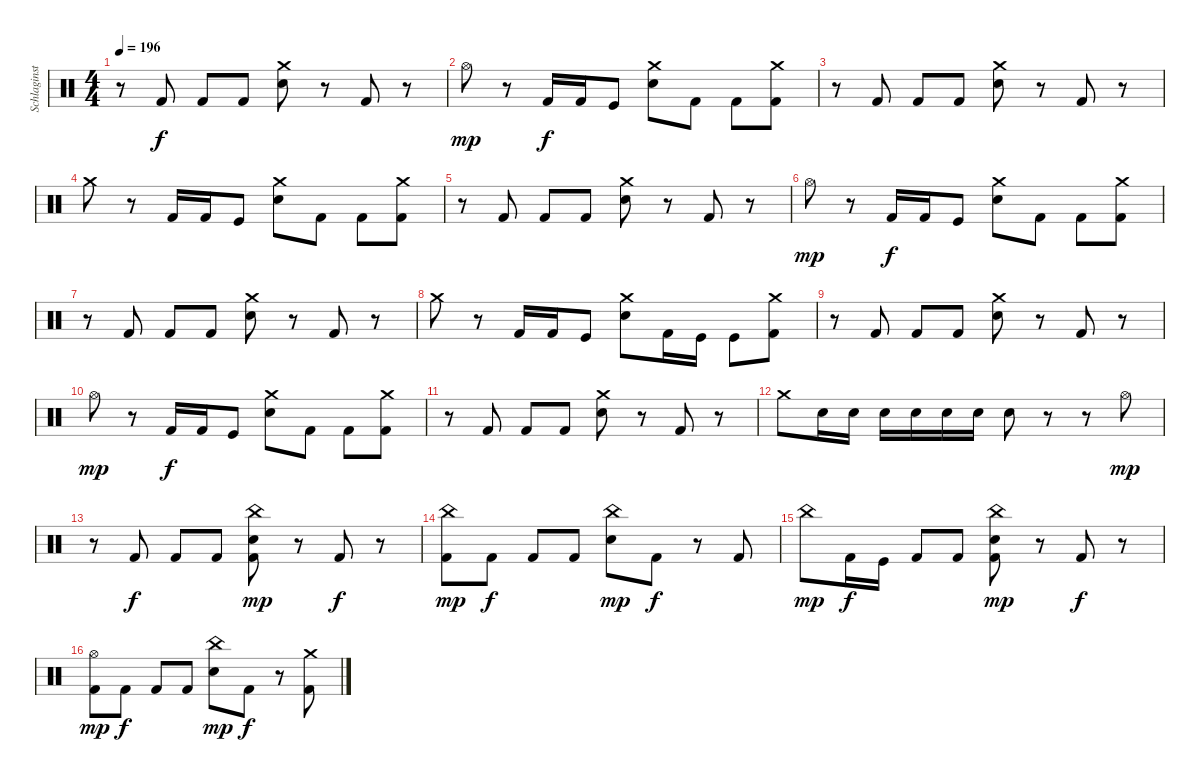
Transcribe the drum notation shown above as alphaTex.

\track ("Schlaginstrumente - Auswahl" "Schlaginst") {instrument percussion}
\staff
\articulation defaults
\ts (4 4)
\tempo 196
\clef neutral
\ks c
r.8{dy f} "Kick (hit) 2".8 "Kick (hit) 2".8 "Kick (hit) 2".8 ("Crash medium (hit)" "Snare (hit) 2").8 r.8 "Kick (hit) 2".8 r.8 |
"Hi-Hat (open)".8{dy mp} r.8 "Kick (hit) 2".16{dy f} "Kick (hit) 2".16 "Kick (hit)".8 ("Crash medium (hit)" "Electric Snare (hit)").8 "Kick (hit) 2".8 "Kick (hit) 2".8 ("Crash medium (hit)" "Kick (hit) 2").8 |
r.8 "Kick (hit) 2".8 "Kick (hit) 2".8 "Kick (hit) 2".8 ("Crash medium (hit)" "Snare (hit) 2").8 r.8 "Kick (hit) 2".8 r.8 |
"Crash medium (hit)".8 r.8 "Kick (hit) 2".16 "Kick (hit) 2".16 "Kick (hit)".8 ("Crash medium (hit)" "Electric Snare (hit)").8 "Kick (hit) 2".8 "Kick (hit) 2".8 ("Crash medium (hit)" "Kick (hit) 2").8 |
r.8 "Kick (hit) 2".8 "Kick (hit) 2".8 "Kick (hit) 2".8 ("Crash medium (hit)" "Snare (hit) 2").8 r.8 "Kick (hit) 2".8 r.8 |
"Hi-Hat (open)".8{dy mp} r.8 "Kick (hit) 2".16{dy f} "Kick (hit) 2".16 "Kick (hit)".8 ("Crash medium (hit)" "Electric Snare (hit)").8 "Kick (hit) 2".8 "Kick (hit) 2".8 ("Crash medium (hit)" "Kick (hit) 2").8 |
r.8 "Kick (hit) 2".8 "Kick (hit) 2".8 "Kick (hit) 2".8 ("Crash medium (hit)" "Snare (hit) 2").8 r.8 "Kick (hit) 2".8 r.8 |
"Crash medium (hit)".8 r.8 "Kick (hit) 2".16 "Kick (hit) 2".16 "Kick (hit)".8 ("Crash medium (hit)" "Electric Snare (hit)").8 "Kick (hit) 2".16 "Kick (hit)".16 "Kick (hit)".8 ("Crash medium (hit)" "Kick (hit) 2").8 |
r.8 "Kick (hit) 2".8 "Kick (hit) 2".8 "Kick (hit) 2".8 ("Crash medium (hit)" "Snare (hit) 2").8 r.8 "Kick (hit) 2".8 r.8 |
"Hi-Hat (open)".8{dy mp} r.8 "Kick (hit) 2".16{dy f} "Kick (hit) 2".16 "Kick (hit)".8 ("Crash medium (hit)" "Electric Snare (hit)").8 "Kick (hit) 2".8 "Kick (hit) 2".8 ("Crash medium (hit)" "Kick (hit) 2").8 |
r.8 "Kick (hit) 2".8 "Kick (hit) 2".8 "Kick (hit) 2".8 ("Crash medium (hit)" "Snare (hit) 2").8 r.8 "Kick (hit) 2".8 r.8 |
"Crash medium (hit)".8 "Electric Snare (hit)".16 "Electric Snare (hit)".16 "Electric Snare (hit)".16 "Electric Snare (hit)".16 "Electric Snare (hit)".16 "Electric Snare (hit)".16 "Electric Snare (hit)".8 r.8 r.8 "Hi-Hat (open)".8{dy mp} |
r.8 "Kick (hit) 2".8{dy f} "Kick (hit) 2".8 "Kick (hit) 2".8 ("China (hit)" "Snare (hit) 2" "Kick (hit) 2").8{dy mp} r.8 "Kick (hit) 2".8{dy f} r.8 |
("China (hit)" "Kick (hit) 2").8{dy mp} "Kick (hit) 2".8{dy f} "Kick (hit) 2".8 "Kick (hit) 2".8 ("China (hit)" "Snare (hit) 2").8{dy mp} "Kick (hit) 2".8{dy f} r.8 "Kick (hit) 2".8 |
"China (hit)".8{dy mp} "Kick (hit) 2".16{dy f} "Kick (hit)".16 "Kick (hit) 2".8 "Kick (hit) 2".8 ("China (hit)" "Snare (hit) 2" "Kick (hit) 2").8{dy mp} r.8 "Kick (hit) 2".8{dy f} r.8 |
("Hi-Hat (open)" "Kick (hit) 2").8{dy mp} "Kick (hit) 2".8{dy f} "Kick (hit) 2".8 "Kick (hit) 2".8 ("China (hit)" "Snare (hit) 2").8{dy mp} "Kick (hit) 2".8{dy f} r.8 ("Crash medium (hit)" "Kick (hit) 2").8
